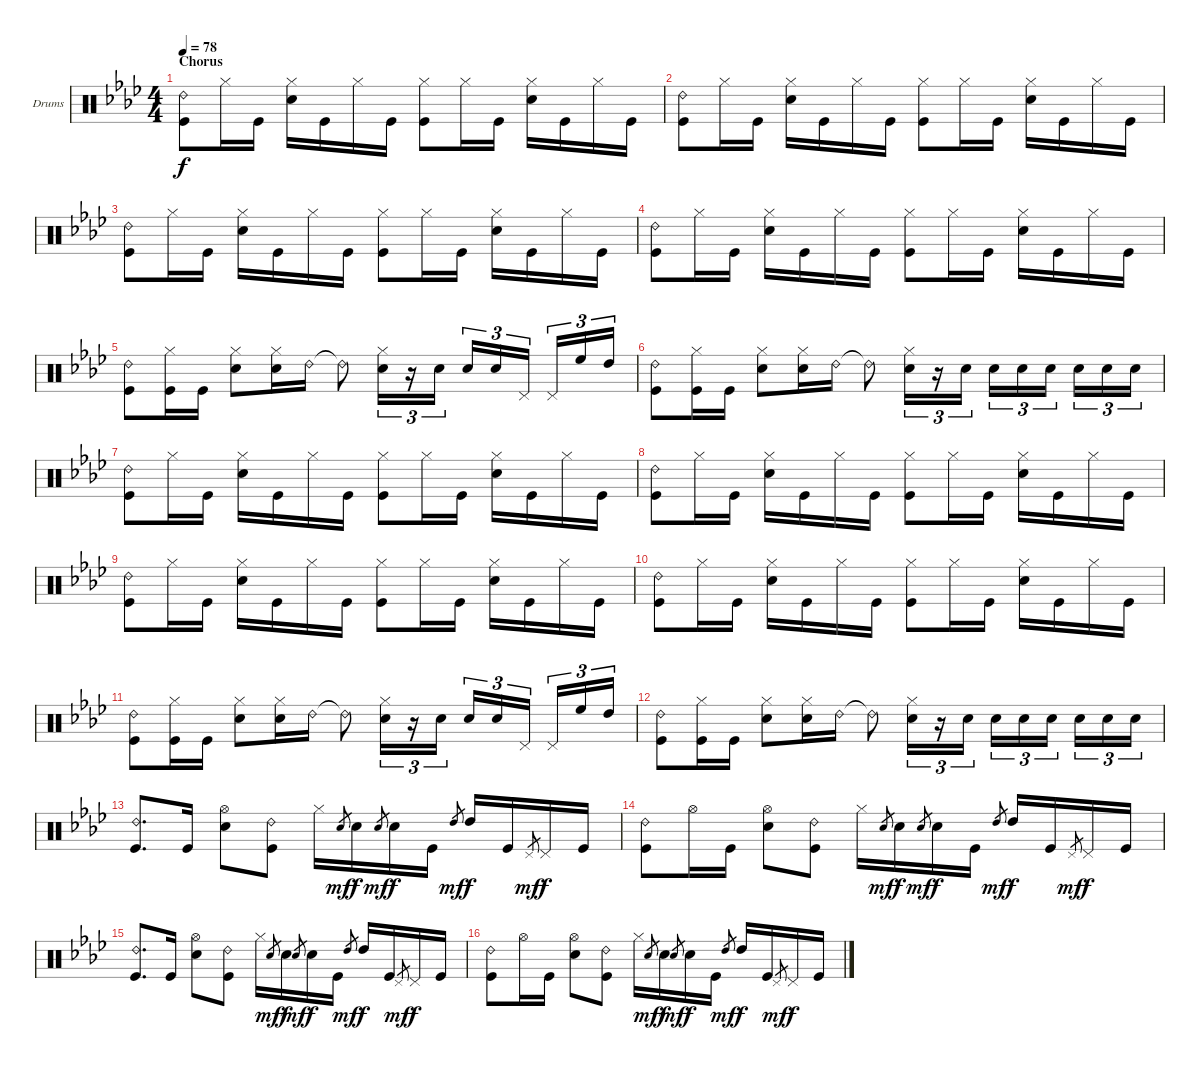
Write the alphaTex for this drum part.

\defaultSystemsLayout 4
\bracketExtendMode groupsimilarinstruments
\firstSystemTrackNameOrientation horizontal
\otherSystemsTrackNameOrientation horizontal
\track ("Drumkit" "Drums") {instrument percussion}
\staff {score}
\articulation defaults
\ts (4 4)
\section ("" "Chorus")
\tempo 78
\clef neutral
\ks ab
("Ride (bell) 2" "Kick (hit)").8{dy f} "Hi-Hat (closed)".16 "Kick (hit)".16 ("Hi-Hat (closed)" "Snare (hit) 2").16 "Kick (hit)".16 "Hi-Hat (closed)".16 "Kick (hit)".16 ("Hi-Hat (closed)" "Kick (hit)").8 "Hi-Hat (closed)".16 "Kick (hit)".16 ("Hi-Hat (closed)" "Snare (hit) 2").16 "Kick (hit)".16 "Hi-Hat (closed)".16 "Kick (hit)".16 |
("Ride (bell) 2" "Kick (hit)").8 "Hi-Hat (closed)".16 "Kick (hit)".16 ("Hi-Hat (closed)" "Snare (hit) 2").16 "Kick (hit)".16 "Hi-Hat (closed)".16 "Kick (hit)".16 ("Hi-Hat (closed)" "Kick (hit)").8 "Hi-Hat (closed)".16 "Kick (hit)".16 ("Hi-Hat (closed)" "Snare (hit) 2").16 "Kick (hit)".16 "Hi-Hat (closed)".16 "Kick (hit)".16 |
("Ride (bell) 2" "Kick (hit)").8 "Hi-Hat (closed)".16 "Kick (hit)".16 ("Hi-Hat (closed)" "Snare (hit) 2").16 "Kick (hit)".16 "Hi-Hat (closed)".16 "Kick (hit)".16 ("Hi-Hat (closed)" "Kick (hit)").8 "Hi-Hat (closed)".16 "Kick (hit)".16 ("Hi-Hat (closed)" "Snare (hit) 2").16 "Kick (hit)".16 "Hi-Hat (closed)".16 "Kick (hit)".16 |
("Ride (bell) 2" "Kick (hit)").8 "Hi-Hat (closed)".16 "Kick (hit)".16 ("Hi-Hat (closed)" "Snare (hit) 2").16 "Kick (hit)".16 "Hi-Hat (closed)".16 "Kick (hit)".16 ("Hi-Hat (closed)" "Kick (hit)").8 "Hi-Hat (closed)".16 "Kick (hit)".16 ("Hi-Hat (closed)" "Snare (hit) 2").16 "Kick (hit)".16 "Hi-Hat (closed)".16 "Kick (hit)".16 |
("Ride (bell) 2" "Kick (hit)").8 ("Hi-Hat (closed)" "Kick (hit)").16 "Kick (hit)".16 ("Hi-Hat (closed)" "Snare (hit) 2").8 ("Hi-Hat (closed)" "Snare (hit) 2").16 "Ride (bell) 2".16 "Ride (bell) 2"{t}.8 ("Hi-Hat (closed)" "Snare (hit) 2").16{tu (3 2)} r.16{tu (3 2)} "Snare (hit) 2".16{tu (3 2)} "Snare (hit) 2".16{tu (3 2)} "Snare (hit) 2".16{tu (3 2)} "Pedal Hi-Hat (hit)".16{tu (3 2)} "Pedal Hi-Hat (hit)".16{tu (3 2)} "High Floor Tom (hit)".16{tu (3 2)} "High Tom (hit)".16{tu (3 2)} |
("Ride (bell) 2" "Kick (hit)").8 ("Hi-Hat (closed)" "Kick (hit)").16 "Kick (hit)".16 ("Hi-Hat (closed)" "Snare (hit) 2").8 ("Hi-Hat (closed)" "Snare (hit) 2").16 "Ride (bell) 2".16 "Ride (bell) 2"{t}.8 ("Hi-Hat (closed)" "Snare (hit) 2").16{tu (3 2)} r.16{tu (3 2)} "Snare (hit) 2".16{tu (3 2)} "Snare (hit) 2".16{tu (3 2)} "Snare (hit) 2".16{tu (3 2)} "Snare (hit) 2".16{tu (3 2)} "Snare (hit) 2".16{tu (3 2)} "Snare (hit) 2".16{tu (3 2)} "Snare (hit) 2".16{tu (3 2)} |
("Ride (bell) 2" "Kick (hit)").8 "Hi-Hat (closed)".16 "Kick (hit)".16 ("Hi-Hat (closed)" "Snare (hit) 2").16 "Kick (hit)".16 "Hi-Hat (closed)".16 "Kick (hit)".16 ("Hi-Hat (closed)" "Kick (hit)").8 "Hi-Hat (closed)".16 "Kick (hit)".16 ("Hi-Hat (closed)" "Snare (hit) 2").16 "Kick (hit)".16 "Hi-Hat (closed)".16 "Kick (hit)".16 |
("Ride (bell) 2" "Kick (hit)").8 "Hi-Hat (closed)".16 "Kick (hit)".16 ("Hi-Hat (closed)" "Snare (hit) 2").16 "Kick (hit)".16 "Hi-Hat (closed)".16 "Kick (hit)".16 ("Hi-Hat (closed)" "Kick (hit)").8 "Hi-Hat (closed)".16 "Kick (hit)".16 ("Hi-Hat (closed)" "Snare (hit) 2").16 "Kick (hit)".16 "Hi-Hat (closed)".16 "Kick (hit)".16 |
("Ride (bell) 2" "Kick (hit)").8 "Hi-Hat (closed)".16 "Kick (hit)".16 ("Hi-Hat (closed)" "Snare (hit) 2").16 "Kick (hit)".16 "Hi-Hat (closed)".16 "Kick (hit)".16 ("Hi-Hat (closed)" "Kick (hit)").8 "Hi-Hat (closed)".16 "Kick (hit)".16 ("Hi-Hat (closed)" "Snare (hit) 2").16 "Kick (hit)".16 "Hi-Hat (closed)".16 "Kick (hit)".16 |
("Ride (bell) 2" "Kick (hit)").8 "Hi-Hat (closed)".16 "Kick (hit)".16 ("Hi-Hat (closed)" "Snare (hit) 2").16 "Kick (hit)".16 "Hi-Hat (closed)".16 "Kick (hit)".16 ("Hi-Hat (closed)" "Kick (hit)").8 "Hi-Hat (closed)".16 "Kick (hit)".16 ("Hi-Hat (closed)" "Snare (hit) 2").16 "Kick (hit)".16 "Hi-Hat (closed)".16 "Kick (hit)".16 |
("Ride (bell) 2" "Kick (hit)").8 ("Hi-Hat (closed)" "Kick (hit)").16 "Kick (hit)".16 ("Hi-Hat (closed)" "Snare (hit) 2").8 ("Hi-Hat (closed)" "Snare (hit) 2").16 "Ride (bell) 2".16 "Ride (bell) 2"{t}.8 ("Hi-Hat (closed)" "Snare (hit) 2").16{tu (3 2)} r.16{tu (3 2)} "Snare (hit) 2".16{tu (3 2)} "Snare (hit) 2".16{tu (3 2)} "Snare (hit) 2".16{tu (3 2)} "Pedal Hi-Hat (hit)".16{tu (3 2)} "Pedal Hi-Hat (hit)".16{tu (3 2)} "High Floor Tom (hit)".16{tu (3 2)} "High Tom (hit)".16{tu (3 2)} |
("Ride (bell) 2" "Kick (hit)").8 ("Hi-Hat (closed)" "Kick (hit)").16 "Kick (hit)".16 ("Hi-Hat (closed)" "Snare (hit) 2").8 ("Hi-Hat (closed)" "Snare (hit) 2").16 "Ride (bell) 2".16 "Ride (bell) 2"{t}.8 ("Hi-Hat (closed)" "Snare (hit) 2").16{tu (3 2)} r.16{tu (3 2)} "Snare (hit) 2".16{tu (3 2)} "Snare (hit) 2".16{tu (3 2)} "Snare (hit) 2".16{tu (3 2)} "Snare (hit) 2".16{tu (3 2)} "Snare (hit) 2".16{tu (3 2)} "Snare (hit) 2".16{tu (3 2)} "Snare (hit) 2".16{tu (3 2)} |
("Ride (bell) 2" "Kick (hit)").8{d} "Kick (hit)".16 ("Hi-Hat (open)" "Snare (hit) 2").8 ("Ride (bell) 2" "Kick (hit)").8 "Hi-Hat (closed)".16 "Snare (hit) 2".8{gr dy mf} "Snare (hit) 2".16{dy f} "Snare (hit) 2".8{gr dy mf} "Snare (hit) 2".16{dy f} "Kick (hit)".16 "High Tom (hit)".8{gr dy mf} "High Tom (hit)".16{dy f} "Kick (hit)".16 "Pedal Hi-Hat (hit)".8{gr dy mf} "Pedal Hi-Hat (hit)".16{dy f} "Kick (hit)".16 |
("Ride (bell) 2" "Kick (hit)").8 "Hi-Hat (open)".16 "Kick (hit)".16 ("Hi-Hat (open)" "Snare (hit) 2").8 ("Ride (bell) 2" "Kick (hit)").8 "Hi-Hat (closed)".16 "Snare (hit) 2".8{gr dy mf} "Snare (hit) 2".16{dy f} "Snare (hit) 2".8{gr dy mf} "Snare (hit) 2".16{dy f} "Kick (hit)".16 "High Tom (hit)".8{gr dy mf} "High Tom (hit)".16{dy f} "Kick (hit)".16 "Pedal Hi-Hat (hit)".8{gr dy mf} "Pedal Hi-Hat (hit)".16{dy f} "Kick (hit)".16 |
("Ride (bell) 2" "Kick (hit)").8{d} "Kick (hit)".16 ("Hi-Hat (open)" "Snare (hit) 2").8 ("Ride (bell) 2" "Kick (hit)").8 "Hi-Hat (closed)".16 "Snare (hit) 2".8{gr dy mf} "Snare (hit) 2".16{dy f} "Snare (hit) 2".8{gr dy mf} "Snare (hit) 2".16{dy f} "Kick (hit)".16 "High Tom (hit)".8{gr dy mf} "High Tom (hit)".16{dy f} "Kick (hit)".16 "Pedal Hi-Hat (hit)".8{gr dy mf} "Pedal Hi-Hat (hit)".16{dy f} "Kick (hit)".16 |
("Ride (bell) 2" "Kick (hit)").8 "Hi-Hat (open)".16 "Kick (hit)".16 ("Hi-Hat (open)" "Snare (hit) 2").8 ("Ride (bell) 2" "Kick (hit)").8 "Hi-Hat (closed)".16 "Snare (hit) 2".8{gr dy mf} "Snare (hit) 2".16{dy f} "Snare (hit) 2".8{gr dy mf} "Snare (hit) 2".16{dy f} "Kick (hit)".16 "High Tom (hit)".8{gr dy mf} "High Tom (hit)".16{dy f} "Kick (hit)".16 "Pedal Hi-Hat (hit)".8{gr dy mf} "Pedal Hi-Hat (hit)".16{dy f} "Kick (hit)".16
